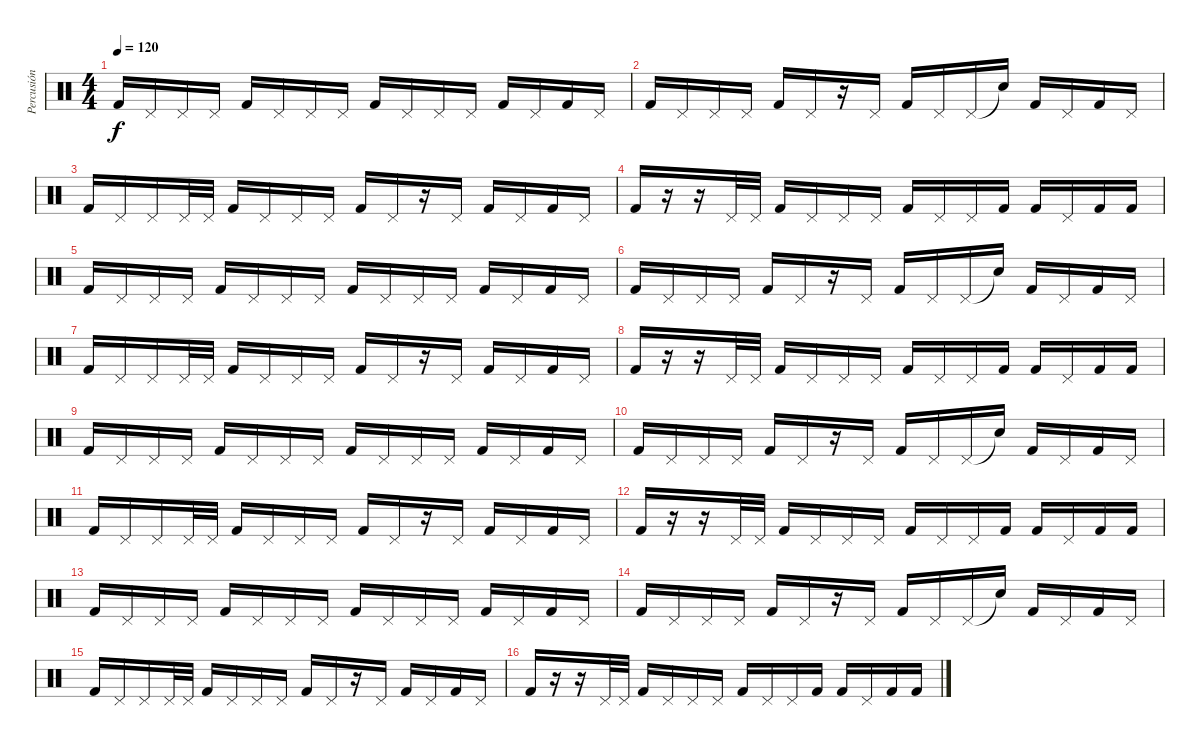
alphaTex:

\track ("Percusión" "Percusión") {instrument percussion}
\staff {score}
\articulation defaults
\ts (4 4)
\tempo 120
\clef neutral
\ks c "Kick (hit) 2".16{dy f} "Pedal Hi-Hat (hit)".16 "Pedal Hi-Hat (hit)".16 "Pedal Hi-Hat (hit)".16 "Kick (hit) 2".16 "Pedal Hi-Hat (hit)".16 "Pedal Hi-Hat (hit)".16 "Pedal Hi-Hat (hit)".16 "Kick (hit) 2".16 "Pedal Hi-Hat (hit)".16 "Pedal Hi-Hat (hit)".16 "Pedal Hi-Hat (hit)".16 "Kick (hit) 2".16 "Pedal Hi-Hat (hit)".16 "Kick (hit) 2".16 "Pedal Hi-Hat (hit)".16
|
"Kick (hit) 2".16 "Pedal Hi-Hat (hit)".16 "Pedal Hi-Hat (hit)".16 "Pedal Hi-Hat (hit)".16 "Kick (hit) 2".16 "Pedal Hi-Hat (hit)".16 r.16 "Pedal Hi-Hat (hit)".16 "Kick (hit) 2".16 "Pedal Hi-Hat (hit)".16 "Pedal Hi-Hat (hit)".16 "Snare (hit)"{t}.16 "Kick (hit) 2".16 "Pedal Hi-Hat (hit)".16 "Kick (hit) 2".16 "Pedal Hi-Hat (hit)".16 |
"Kick (hit) 2".16 "Pedal Hi-Hat (hit)".16 "Pedal Hi-Hat (hit)".16 "Pedal Hi-Hat (hit)".32 "Pedal Hi-Hat (hit)".32 "Kick (hit) 2".16 "Pedal Hi-Hat (hit)".16 "Pedal Hi-Hat (hit)".16 "Pedal Hi-Hat (hit)".16 "Kick (hit) 2".16 "Pedal Hi-Hat (hit)".16 r.16 "Pedal Hi-Hat (hit)".16 "Kick (hit) 2".16 "Pedal Hi-Hat (hit)".16 "Kick (hit) 2".16 "Pedal Hi-Hat (hit)".16 |
"Kick (hit) 2".16 r.16 r.16 "Pedal Hi-Hat (hit)".32 "Pedal Hi-Hat (hit)".32 "Kick (hit) 2".16 "Pedal Hi-Hat (hit)".16 "Pedal Hi-Hat (hit)".16 "Pedal Hi-Hat (hit)".16 "Kick (hit) 2".16 "Pedal Hi-Hat (hit)".16 "Pedal Hi-Hat (hit)".16 "Kick (hit) 2".16 "Kick (hit) 2".16 "Pedal Hi-Hat (hit)".16 "Kick (hit) 2".16 "Kick (hit) 2".16 |
"Kick (hit) 2".16 "Pedal Hi-Hat (hit)".16 "Pedal Hi-Hat (hit)".16 "Pedal Hi-Hat (hit)".16 "Kick (hit) 2".16 "Pedal Hi-Hat (hit)".16 "Pedal Hi-Hat (hit)".16 "Pedal Hi-Hat (hit)".16 "Kick (hit) 2".16 "Pedal Hi-Hat (hit)".16 "Pedal Hi-Hat (hit)".16 "Pedal Hi-Hat (hit)".16 "Kick (hit) 2".16 "Pedal Hi-Hat (hit)".16 "Kick (hit) 2".16 "Pedal Hi-Hat (hit)".16 |
"Kick (hit) 2".16 "Pedal Hi-Hat (hit)".16 "Pedal Hi-Hat (hit)".16 "Pedal Hi-Hat (hit)".16 "Kick (hit) 2".16 "Pedal Hi-Hat (hit)".16 r.16 "Pedal Hi-Hat (hit)".16 "Kick (hit) 2".16 "Pedal Hi-Hat (hit)".16 "Pedal Hi-Hat (hit)".16 "Snare (hit)"{t}.16 "Kick (hit) 2".16 "Pedal Hi-Hat (hit)".16 "Kick (hit) 2".16 "Pedal Hi-Hat (hit)".16 |
"Kick (hit) 2".16 "Pedal Hi-Hat (hit)".16 "Pedal Hi-Hat (hit)".16 "Pedal Hi-Hat (hit)".32 "Pedal Hi-Hat (hit)".32 "Kick (hit) 2".16 "Pedal Hi-Hat (hit)".16 "Pedal Hi-Hat (hit)".16 "Pedal Hi-Hat (hit)".16 "Kick (hit) 2".16 "Pedal Hi-Hat (hit)".16 r.16 "Pedal Hi-Hat (hit)".16 "Kick (hit) 2".16 "Pedal Hi-Hat (hit)".16 "Kick (hit) 2".16 "Pedal Hi-Hat (hit)".16 |
"Kick (hit) 2".16 r.16 r.16 "Pedal Hi-Hat (hit)".32 "Pedal Hi-Hat (hit)".32 "Kick (hit) 2".16 "Pedal Hi-Hat (hit)".16 "Pedal Hi-Hat (hit)".16 "Pedal Hi-Hat (hit)".16 "Kick (hit) 2".16 "Pedal Hi-Hat (hit)".16 "Pedal Hi-Hat (hit)".16 "Kick (hit) 2".16 "Kick (hit) 2".16 "Pedal Hi-Hat (hit)".16 "Kick (hit) 2".16 "Kick (hit) 2".16 |
"Kick (hit) 2".16 "Pedal Hi-Hat (hit)".16 "Pedal Hi-Hat (hit)".16 "Pedal Hi-Hat (hit)".16 "Kick (hit) 2".16 "Pedal Hi-Hat (hit)".16 "Pedal Hi-Hat (hit)".16 "Pedal Hi-Hat (hit)".16 "Kick (hit) 2".16 "Pedal Hi-Hat (hit)".16 "Pedal Hi-Hat (hit)".16 "Pedal Hi-Hat (hit)".16 "Kick (hit) 2".16 "Pedal Hi-Hat (hit)".16 "Kick (hit) 2".16 "Pedal Hi-Hat (hit)".16 |
"Kick (hit) 2".16 "Pedal Hi-Hat (hit)".16 "Pedal Hi-Hat (hit)".16 "Pedal Hi-Hat (hit)".16 "Kick (hit) 2".16 "Pedal Hi-Hat (hit)".16 r.16 "Pedal Hi-Hat (hit)".16 "Kick (hit) 2".16 "Pedal Hi-Hat (hit)".16 "Pedal Hi-Hat (hit)".16 "Snare (hit)"{t}.16 "Kick (hit) 2".16 "Pedal Hi-Hat (hit)".16 "Kick (hit) 2".16 "Pedal Hi-Hat (hit)".16 |
"Kick (hit) 2".16 "Pedal Hi-Hat (hit)".16 "Pedal Hi-Hat (hit)".16 "Pedal Hi-Hat (hit)".32 "Pedal Hi-Hat (hit)".32 "Kick (hit) 2".16 "Pedal Hi-Hat (hit)".16 "Pedal Hi-Hat (hit)".16 "Pedal Hi-Hat (hit)".16 "Kick (hit) 2".16 "Pedal Hi-Hat (hit)".16 r.16 "Pedal Hi-Hat (hit)".16 "Kick (hit) 2".16 "Pedal Hi-Hat (hit)".16 "Kick (hit) 2".16 "Pedal Hi-Hat (hit)".16 |
"Kick (hit) 2".16 r.16 r.16 "Pedal Hi-Hat (hit)".32 "Pedal Hi-Hat (hit)".32 "Kick (hit) 2".16 "Pedal Hi-Hat (hit)".16 "Pedal Hi-Hat (hit)".16 "Pedal Hi-Hat (hit)".16 "Kick (hit) 2".16 "Pedal Hi-Hat (hit)".16 "Pedal Hi-Hat (hit)".16 "Kick (hit) 2".16 "Kick (hit) 2".16 "Pedal Hi-Hat (hit)".16 "Kick (hit) 2".16 "Kick (hit) 2".16 |
"Kick (hit) 2".16 "Pedal Hi-Hat (hit)".16 "Pedal Hi-Hat (hit)".16 "Pedal Hi-Hat (hit)".16 "Kick (hit) 2".16 "Pedal Hi-Hat (hit)".16 "Pedal Hi-Hat (hit)".16 "Pedal Hi-Hat (hit)".16 "Kick (hit) 2".16 "Pedal Hi-Hat (hit)".16 "Pedal Hi-Hat (hit)".16 "Pedal Hi-Hat (hit)".16 "Kick (hit) 2".16 "Pedal Hi-Hat (hit)".16 "Kick (hit) 2".16 "Pedal Hi-Hat (hit)".16 |
"Kick (hit) 2".16 "Pedal Hi-Hat (hit)".16 "Pedal Hi-Hat (hit)".16 "Pedal Hi-Hat (hit)".16 "Kick (hit) 2".16 "Pedal Hi-Hat (hit)".16 r.16 "Pedal Hi-Hat (hit)".16 "Kick (hit) 2".16 "Pedal Hi-Hat (hit)".16 "Pedal Hi-Hat (hit)".16 "Snare (hit)"{t}.16 "Kick (hit) 2".16 "Pedal Hi-Hat (hit)".16 "Kick (hit) 2".16 "Pedal Hi-Hat (hit)".16 |
"Kick (hit) 2".16 "Pedal Hi-Hat (hit)".16 "Pedal Hi-Hat (hit)".16 "Pedal Hi-Hat (hit)".32 "Pedal Hi-Hat (hit)".32 "Kick (hit) 2".16 "Pedal Hi-Hat (hit)".16 "Pedal Hi-Hat (hit)".16 "Pedal Hi-Hat (hit)".16 "Kick (hit) 2".16 "Pedal Hi-Hat (hit)".16 r.16 "Pedal Hi-Hat (hit)".16 "Kick (hit) 2".16 "Pedal Hi-Hat (hit)".16 "Kick (hit) 2".16 "Pedal Hi-Hat (hit)".16 |
"Kick (hit) 2".16 r.16 r.16 "Pedal Hi-Hat (hit)".32 "Pedal Hi-Hat (hit)".32 "Kick (hit) 2".16 "Pedal Hi-Hat (hit)".16 "Pedal Hi-Hat (hit)".16 "Pedal Hi-Hat (hit)".16 "Kick (hit) 2".16 "Pedal Hi-Hat (hit)".16 "Pedal Hi-Hat (hit)".16 "Kick (hit) 2".16 "Kick (hit) 2".16 "Pedal Hi-Hat (hit)".16 "Kick (hit) 2".16 "Kick (hit) 2".16
